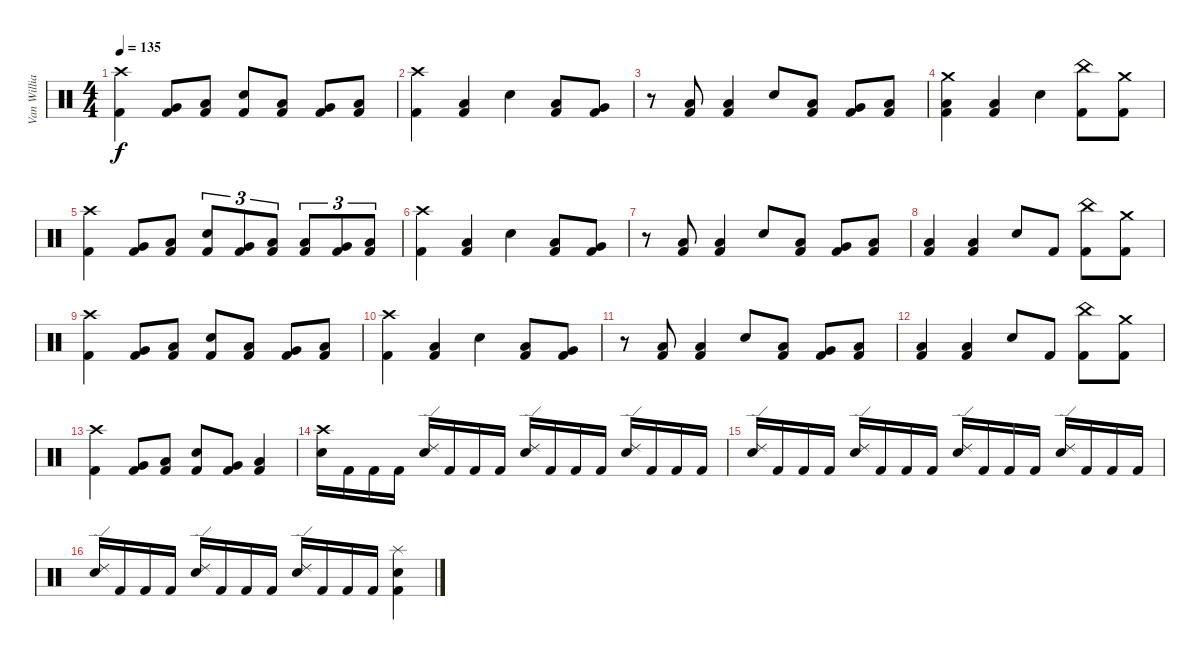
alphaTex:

\track ("Van Williams" "Van Willia") {instrument percussion}
\staff {score}
\articulation defaults
\ts (4 4)
\tempo 135
\clef neutral
\ks c
("Crash high (hit)" "Kick (hit) 2").4{dy f} ("Very Low Tom (hit)" "Kick (hit) 2").8 ("Low Floor Tom (hit)" "Kick (hit) 2").8 ("Electric Snare (hit)" "Kick (hit) 2").8 ("Low Floor Tom (hit)" "Kick (hit) 2").8 ("Very Low Tom (hit)" "Kick (hit) 2").8 ("Low Floor Tom (hit)" "Kick (hit) 2").8 |
("Crash high (hit)" "Kick (hit) 2").4 ("Low Tom (hit)" "Kick (hit) 2").4 "Electric Snare (hit)".4 ("Low Tom (hit)" "Kick (hit) 2").8 ("Very Low Tom (hit)" "Kick (hit) 2").8 |
r.8 ("Low Floor Tom (hit)" "Kick (hit) 2").8 ("Low Floor Tom (hit)" "Kick (hit) 2").4 "Electric Snare (hit)".8 ("Low Floor Tom (hit)" "Kick (hit) 2").8 ("Very Low Tom (hit)" "Kick (hit) 2").8 ("Low Floor Tom (hit)" "Kick (hit) 2").8 |
("Crash medium (hit)" "Low Floor Tom (hit)" "Kick (hit) 2").4 ("Low Floor Tom (hit)" "Kick (hit) 2").4 "Electric Snare (hit)".4 ("China (hit)" "Kick (hit) 2").8 ("Crash medium (hit)" "Kick (hit) 2").8 |
("Crash high (hit)" "Kick (hit) 2").4 ("Very Low Tom (hit)" "Kick (hit) 2").8 ("Low Floor Tom (hit)" "Kick (hit) 2").8 ("Electric Snare (hit)" "Kick (hit) 2").8{tu (3 2)} ("Very Low Tom (hit)" "Kick (hit) 2").8{tu (3 2)} ("Low Floor Tom (hit)" "Kick (hit) 2").8{tu (3 2)} ("Low Tom (hit)" "Kick (hit) 2").8{tu (3 2)} ("Very Low Tom (hit)" "Kick (hit) 2").8{tu (3 2)} ("Low Floor Tom (hit)" "Kick (hit) 2").8{tu (3 2)} |
("Crash high (hit)" "Kick (hit) 2").4 ("Low Floor Tom (hit)" "Kick (hit) 2").4 "Electric Snare (hit)".4 ("Low Tom (hit)" "Kick (hit) 2").8 ("Very Low Tom (hit)" "Kick (hit) 2").8 |
r.8 ("Low Floor Tom (hit)" "Kick (hit) 2").8 ("Low Floor Tom (hit)" "Kick (hit) 2").4 "Electric Snare (hit)".8 ("Low Floor Tom (hit)" "Kick (hit) 2").8 ("Very Low Tom (hit)" "Kick (hit) 2").8 ("Low Floor Tom (hit)" "Kick (hit) 2").8 |
("Low Floor Tom (hit)" "Kick (hit) 2").4 ("Low Floor Tom (hit)" "Kick (hit) 2").4 "Electric Snare (hit)".8 "Kick (hit) 2".8 ("China (hit)" "Kick (hit) 2").8 ("Crash medium (hit)" "Kick (hit) 2").8 |
("Crash high (hit)" "Kick (hit) 2").4 ("Very Low Tom (hit)" "Kick (hit) 2").8 ("Low Floor Tom (hit)" "Kick (hit) 2").8 ("Electric Snare (hit)" "Kick (hit) 2").8 ("Low Floor Tom (hit)" "Kick (hit) 2").8 ("Very Low Tom (hit)" "Kick (hit) 2").8 ("Low Floor Tom (hit)" "Kick (hit) 2").8 |
("Crash high (hit)" "Kick (hit) 2").4 ("Low Floor Tom (hit)" "Kick (hit) 2").4 "Electric Snare (hit)".4 ("Low Tom (hit)" "Kick (hit) 2").8 ("Very Low Tom (hit)" "Kick (hit) 2").8 |
r.8 ("Low Floor Tom (hit)" "Kick (hit) 2").8 ("Low Floor Tom (hit)" "Kick (hit) 2").4 "Electric Snare (hit)".8 ("Low Floor Tom (hit)" "Kick (hit) 2").8 ("Very Low Tom (hit)" "Kick (hit) 2").8 ("Low Floor Tom (hit)" "Kick (hit) 2").8 |
("Low Floor Tom (hit)" "Kick (hit) 2").4 ("Low Floor Tom (hit)" "Kick (hit) 2").4 "Electric Snare (hit)".8 "Kick (hit) 2".8 ("China (hit)" "Kick (hit) 2").8 ("Crash medium (hit)" "Kick (hit) 2").8 |
("Crash high (hit)" "Kick (hit) 2").4 ("Very Low Tom (hit)" "Kick (hit) 2").8 ("Low Floor Tom (hit)" "Kick (hit) 2").8 ("Electric Snare (hit)" "Kick (hit) 2").8 ("Very Low Tom (hit)" "Kick (hit) 2").8 ("Low Floor Tom (hit)" "Kick (hit) 2").4 |
("Crash high (hit)" "Electric Snare (hit)").16 "Kick (hit) 2".16 "Kick (hit) 2".16 "Kick (hit) 2".16 ("Ride (edge) 2" "Electric Snare (hit)").16 "Kick (hit) 2".16 "Kick (hit) 2".16 "Kick (hit) 2".16 ("Ride (edge) 2" "Electric Snare (hit)").16 "Kick (hit) 2".16 "Kick (hit) 2".16 "Kick (hit) 2".16 ("Ride (edge) 2" "Electric Snare (hit)").16 "Kick (hit) 2".16 "Kick (hit) 2".16 "Kick (hit) 2".16 |
("Ride (edge) 2" "Electric Snare (hit)").16 "Kick (hit) 2".16 "Kick (hit) 2".16 "Kick (hit) 2".16 ("Ride (edge) 2" "Electric Snare (hit)").16 "Kick (hit) 2".16 "Kick (hit) 2".16 "Kick (hit) 2".16 ("Ride (edge) 2" "Electric Snare (hit)").16 "Kick (hit) 2".16 "Kick (hit) 2".16 "Kick (hit) 2".16 ("Ride (edge) 2" "Electric Snare (hit)").16 "Kick (hit) 2".16 "Kick (hit) 2".16 "Kick (hit) 2".16 |
("Ride (edge) 2" "Electric Snare (hit)").16 "Kick (hit) 2".16 "Kick (hit) 2".16 "Kick (hit) 2".16 ("Ride (edge) 2" "Electric Snare (hit)").16 "Kick (hit) 2".16 "Kick (hit) 2".16 "Kick (hit) 2".16 ("Ride (edge) 2" "Electric Snare (hit)").16 "Kick (hit) 2".16 "Kick (hit) 2".16 "Kick (hit) 2".16 ("Splash (hit)" "Electric Snare (hit)" "Kick (hit) 2").4
